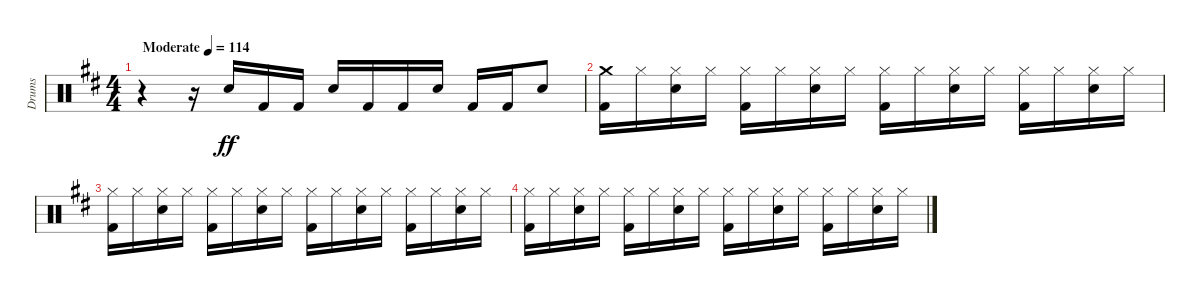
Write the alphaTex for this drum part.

\track ("Drums" "Drums") {instrument percussion}
\staff {score}
\articulation defaults
\ts (4 4)
\tempo (114 "Moderate")
\clef neutral
\ks d
r.4{dy ff} r.16 "Electric Snare (hit)".16 "Kick (hit) 2".16 "Kick (hit) 2".16 "Electric Snare (hit)".16 "Kick (hit) 2".16 "Kick (hit) 2".16 "Electric Snare (hit)".16 "Kick (hit) 2".16 "Kick (hit) 2".16 "Electric Snare (hit)".8 |
("Crash medium (hit)" "Kick (hit) 2").16 "Hi-Hat (closed)".16 ("Hi-Hat (closed)" "Electric Snare (hit)").16 "Hi-Hat (closed)".16 ("Hi-Hat (closed)" "Kick (hit) 2").16 "Hi-Hat (closed)".16 ("Hi-Hat (closed)" "Electric Snare (hit)").16 "Hi-Hat (closed)".16 ("Hi-Hat (closed)" "Kick (hit) 2").16 "Hi-Hat (closed)".16 ("Hi-Hat (closed)" "Electric Snare (hit)").16 "Hi-Hat (closed)".16 ("Hi-Hat (closed)" "Kick (hit) 2").16 "Hi-Hat (closed)".16 ("Hi-Hat (closed)" "Electric Snare (hit)").16 "Hi-Hat (closed)".16 |
("Hi-Hat (closed)" "Kick (hit) 2").16 "Hi-Hat (closed)".16 ("Hi-Hat (closed)" "Electric Snare (hit)").16 "Hi-Hat (closed)".16 ("Hi-Hat (closed)" "Kick (hit) 2").16 "Hi-Hat (closed)".16 ("Hi-Hat (closed)" "Electric Snare (hit)").16 "Hi-Hat (closed)".16 ("Hi-Hat (closed)" "Kick (hit) 2").16 "Hi-Hat (closed)".16 ("Hi-Hat (closed)" "Electric Snare (hit)").16 "Hi-Hat (closed)".16 ("Hi-Hat (closed)" "Kick (hit) 2").16 "Hi-Hat (closed)".16 ("Hi-Hat (closed)" "Electric Snare (hit)").16 "Hi-Hat (closed)".16 |
("Hi-Hat (closed)" "Kick (hit) 2").16{volume 4} "Hi-Hat (closed)".16 ("Hi-Hat (closed)" "Electric Snare (hit)").16 "Hi-Hat (closed)".16 ("Hi-Hat (closed)" "Kick (hit) 2").16 "Hi-Hat (closed)".16 ("Hi-Hat (closed)" "Electric Snare (hit)").16 "Hi-Hat (closed)".16 ("Hi-Hat (closed)" "Kick (hit) 2").16 "Hi-Hat (closed)".16 ("Hi-Hat (closed)" "Electric Snare (hit)").16 "Hi-Hat (closed)".16 ("Hi-Hat (closed)" "Kick (hit) 2").16 "Hi-Hat (closed)".16 ("Hi-Hat (closed)" "Electric Snare (hit)").16 "Hi-Hat (closed)".16
